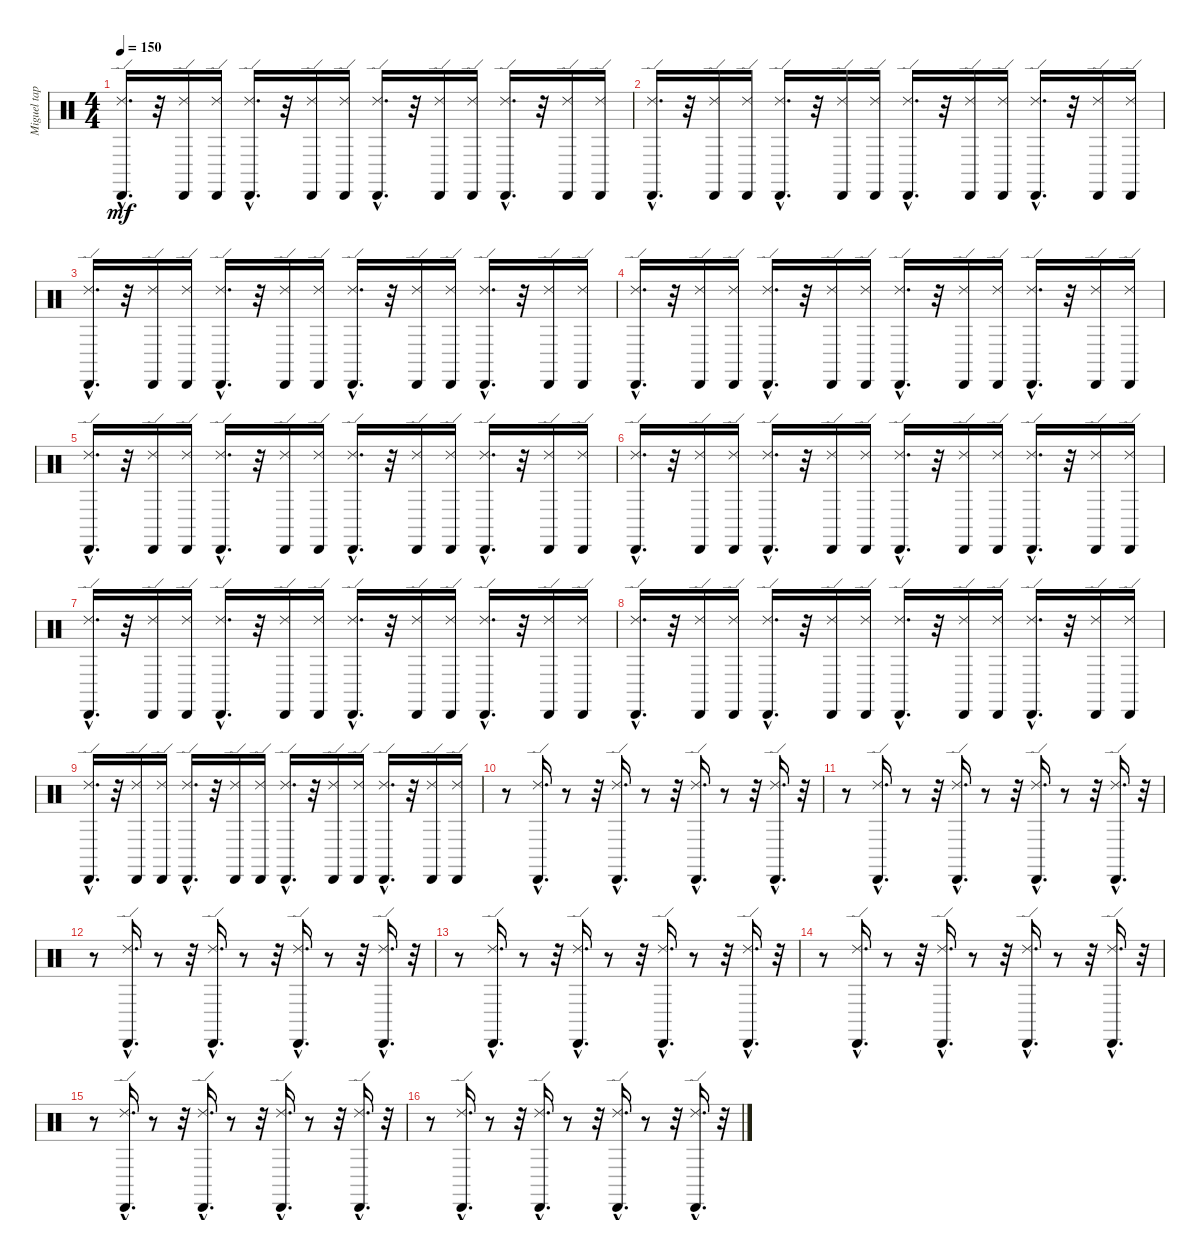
\track ("Miguel tapia" "Miguel tap") {instrument percussion}
\staff {score}
\articulation defaults
\ts (4 4)
\tempo 150
\clef neutral
\ks c
("Cabasa (hit)"{hac} "Ride (edge) 2"{hac}).16{d dy mf} r.32 ("Cabasa (hit)" "Ride (edge) 2").16 ("Cabasa (hit)" "Ride (edge) 2").16 ("Cabasa (hit)"{hac} "Ride (edge) 2"{hac}).16{d} r.32 ("Ride (edge) 2" "Cabasa (hit)").16 ("Cabasa (hit)" "Ride (edge) 2").16 ("Ride (edge) 2"{hac} "Cabasa (hit)"{hac}).16{d} r.32 ("Ride (edge) 2" "Cabasa (hit)").16 ("Cabasa (hit)" "Ride (edge) 2").16 ("Ride (edge) 2"{hac} "Cabasa (hit)"{hac}).16{d} r.32 ("Ride (edge) 2" "Cabasa (hit)").16 ("Ride (edge) 2" "Cabasa (hit)").16 |
("Cabasa (hit)"{hac} "Ride (edge) 2"{hac}).16{d} r.32 ("Ride (edge) 2" "Cabasa (hit)").16 ("Ride (edge) 2" "Cabasa (hit)").16 ("Ride (edge) 2"{hac} "Cabasa (hit)"{hac}).16{d} r.32 ("Cabasa (hit)" "Ride (edge) 2").16 ("Cabasa (hit)" "Ride (edge) 2").16 ("Cabasa (hit)"{hac} "Ride (edge) 2"{hac}).16{d} r.32 ("Cabasa (hit)" "Ride (edge) 2").16 ("Ride (edge) 2" "Cabasa (hit)").16 ("Cabasa (hit)"{hac} "Ride (edge) 2"{hac}).16{d} r.32 ("Ride (edge) 2" "Cabasa (hit)").16 ("Ride (edge) 2" "Cabasa (hit)").16 |
("Cabasa (hit)"{hac} "Ride (edge) 2"{hac}).16{d} r.32 ("Cabasa (hit)" "Ride (edge) 2").16 ("Ride (edge) 2" "Cabasa (hit)").16 ("Ride (edge) 2"{hac} "Cabasa (hit)"{hac}).16{d} r.32 ("Cabasa (hit)" "Ride (edge) 2").16 ("Ride (edge) 2" "Cabasa (hit)").16 ("Cabasa (hit)"{hac} "Ride (edge) 2"{hac}).16{d} r.32 ("Cabasa (hit)" "Ride (edge) 2").16 ("Cabasa (hit)" "Ride (edge) 2").16 ("Cabasa (hit)"{hac} "Ride (edge) 2"{hac}).16{d} r.32 ("Cabasa (hit)" "Ride (edge) 2").16 ("Cabasa (hit)" "Ride (edge) 2").16 |
("Ride (edge) 2"{hac} "Cabasa (hit)"{hac}).16{d} r.32 ("Cabasa (hit)" "Ride (edge) 2").16 ("Cabasa (hit)" "Ride (edge) 2").16 ("Cabasa (hit)"{hac} "Ride (edge) 2"{hac}).16{d} r.32 ("Cabasa (hit)" "Ride (edge) 2").16 ("Cabasa (hit)" "Ride (edge) 2").16 ("Cabasa (hit)"{hac} "Ride (edge) 2"{hac}).16{d} r.32 ("Cabasa (hit)" "Ride (edge) 2").16 ("Cabasa (hit)" "Ride (edge) 2").16 ("Ride (edge) 2"{hac} "Cabasa (hit)"{hac}).16{d} r.32 ("Cabasa (hit)" "Ride (edge) 2").16 ("Ride (edge) 2" "Cabasa (hit)").16 |
("Ride (edge) 2"{hac} "Cabasa (hit)"{hac}).16{d} r.32 ("Cabasa (hit)" "Ride (edge) 2").16 ("Ride (edge) 2" "Cabasa (hit)").16 ("Ride (edge) 2"{hac} "Cabasa (hit)"{hac}).16{d} r.32 ("Cabasa (hit)" "Ride (edge) 2").16 ("Ride (edge) 2" "Cabasa (hit)").16 ("Cabasa (hit)"{hac} "Ride (edge) 2"{hac}).16{d} r.32 ("Ride (edge) 2" "Cabasa (hit)").16 ("Ride (edge) 2" "Cabasa (hit)").16 ("Ride (edge) 2"{hac} "Cabasa (hit)"{hac}).16{d} r.32 ("Cabasa (hit)" "Ride (edge) 2").16 ("Ride (edge) 2" "Cabasa (hit)").16 |
("Ride (edge) 2"{hac} "Cabasa (hit)"{hac}).16{d} r.32 ("Cabasa (hit)" "Ride (edge) 2").16 ("Ride (edge) 2" "Cabasa (hit)").16 ("Cabasa (hit)"{hac} "Ride (edge) 2"{hac}).16{d} r.32 ("Cabasa (hit)" "Ride (edge) 2").16 ("Ride (edge) 2" "Cabasa (hit)").16 ("Ride (edge) 2"{hac} "Cabasa (hit)"{hac}).16{d} r.32 ("Ride (edge) 2" "Cabasa (hit)").16 ("Ride (edge) 2" "Cabasa (hit)").16 ("Ride (edge) 2"{hac} "Cabasa (hit)"{hac}).16{d} r.32 ("Ride (edge) 2" "Cabasa (hit)").16 ("Ride (edge) 2" "Cabasa (hit)").16 |
("Ride (edge) 2"{hac} "Cabasa (hit)"{hac}).16{d} r.32 ("Ride (edge) 2" "Cabasa (hit)").16 ("Ride (edge) 2" "Cabasa (hit)").16 ("Cabasa (hit)"{hac} "Ride (edge) 2"{hac}).16{d} r.32 ("Cabasa (hit)" "Ride (edge) 2").16 ("Ride (edge) 2" "Cabasa (hit)").16 ("Cabasa (hit)"{hac} "Ride (edge) 2"{hac}).16{d} r.32 ("Ride (edge) 2" "Cabasa (hit)").16 ("Cabasa (hit)" "Ride (edge) 2").16 ("Cabasa (hit)"{hac} "Ride (edge) 2"{hac}).16{d} r.32 ("Ride (edge) 2" "Cabasa (hit)").16 ("Cabasa (hit)" "Ride (edge) 2").16 |
("Ride (edge) 2"{hac} "Cabasa (hit)"{hac}).16{d} r.32 ("Cabasa (hit)" "Ride (edge) 2").16 ("Cabasa (hit)" "Ride (edge) 2").16 ("Cabasa (hit)"{hac} "Ride (edge) 2"{hac}).16{d} r.32 ("Cabasa (hit)" "Ride (edge) 2").16 ("Cabasa (hit)" "Ride (edge) 2").16 ("Ride (edge) 2"{hac} "Cabasa (hit)"{hac}).16{d} r.32 ("Cabasa (hit)" "Ride (edge) 2").16 ("Cabasa (hit)" "Ride (edge) 2").16 ("Ride (edge) 2"{hac} "Cabasa (hit)"{hac}).16{d} r.32 ("Ride (edge) 2" "Cabasa (hit)").16 ("Cabasa (hit)" "Ride (edge) 2").16 |
("Ride (edge) 2"{hac} "Cabasa (hit)"{hac}).16{d} r.32 ("Cabasa (hit)" "Ride (edge) 2").16 ("Cabasa (hit)" "Ride (edge) 2").16 ("Ride (edge) 2"{hac} "Cabasa (hit)"{hac}).16{d} r.32 ("Cabasa (hit)" "Ride (edge) 2").16 ("Cabasa (hit)" "Ride (edge) 2").16 ("Cabasa (hit)"{hac} "Ride (edge) 2"{hac}).16{d} r.32 ("Ride (edge) 2" "Cabasa (hit)").16 ("Ride (edge) 2" "Cabasa (hit)").16 ("Cabasa (hit)"{hac} "Ride (edge) 2"{hac}).16{d} r.32 ("Cabasa (hit)" "Ride (edge) 2").16 ("Ride (edge) 2" "Cabasa (hit)").16 |
r.8 ("Ride (edge) 2"{hac} "Cabasa (hit)"{hac}).16{d} r.8 r.32 ("Ride (edge) 2"{hac} "Cabasa (hit)"{hac}).16{d} r.8 r.32 ("Ride (edge) 2"{hac} "Cabasa (hit)"{hac}).16{d} r.8 r.32 ("Cabasa (hit)"{hac} "Ride (edge) 2"{hac}).16{d} r.32 |
r.8 ("Cabasa (hit)"{hac} "Ride (edge) 2"{hac}).16{d} r.8 r.32 ("Ride (edge) 2"{hac} "Cabasa (hit)"{hac}).16{d} r.8 r.32 ("Ride (edge) 2"{hac} "Cabasa (hit)"{hac}).16{d} r.8 r.32 ("Cabasa (hit)"{hac} "Ride (edge) 2"{hac}).16{d} r.32 |
r.8 ("Ride (edge) 2"{hac} "Cabasa (hit)"{hac}).16{d} r.8 r.32 ("Cabasa (hit)"{hac} "Ride (edge) 2"{hac}).16{d} r.8 r.32 ("Ride (edge) 2"{hac} "Cabasa (hit)"{hac}).16{d} r.8 r.32 ("Ride (edge) 2"{hac} "Cabasa (hit)"{hac}).16{d} r.32 |
r.8 ("Cabasa (hit)"{hac} "Ride (edge) 2"{hac}).16{d} r.8 r.32 ("Ride (edge) 2"{hac} "Cabasa (hit)"{hac}).16{d} r.8 r.32 ("Cabasa (hit)"{hac} "Ride (edge) 2"{hac}).16{d} r.8 r.32 ("Cabasa (hit)"{hac} "Ride (edge) 2"{hac}).16{d} r.32 |
r.8 ("Cabasa (hit)"{hac} "Ride (edge) 2"{hac}).16{d} r.8 r.32 ("Ride (edge) 2"{hac} "Cabasa (hit)"{hac}).16{d} r.8 r.32 ("Cabasa (hit)"{hac} "Ride (edge) 2"{hac}).16{d} r.8 r.32 ("Cabasa (hit)"{hac} "Ride (edge) 2"{hac}).16{d} r.32 |
r.8 ("Cabasa (hit)"{hac} "Ride (edge) 2"{hac}).16{d} r.8 r.32 ("Cabasa (hit)"{hac} "Ride (edge) 2"{hac}).16{d} r.8 r.32 ("Cabasa (hit)"{hac} "Ride (edge) 2"{hac}).16{d} r.8 r.32 ("Cabasa (hit)"{hac} "Ride (edge) 2"{hac}).16{d} r.32 |
r.8 ("Ride (edge) 2"{hac} "Cabasa (hit)"{hac}).16{d} r.8 r.32 ("Cabasa (hit)"{hac} "Ride (edge) 2"{hac}).16{d} r.8 r.32 ("Cabasa (hit)"{hac} "Ride (edge) 2"{hac}).16{d} r.8 r.32 ("Ride (edge) 2"{hac} "Cabasa (hit)"{hac}).16{d} r.32
